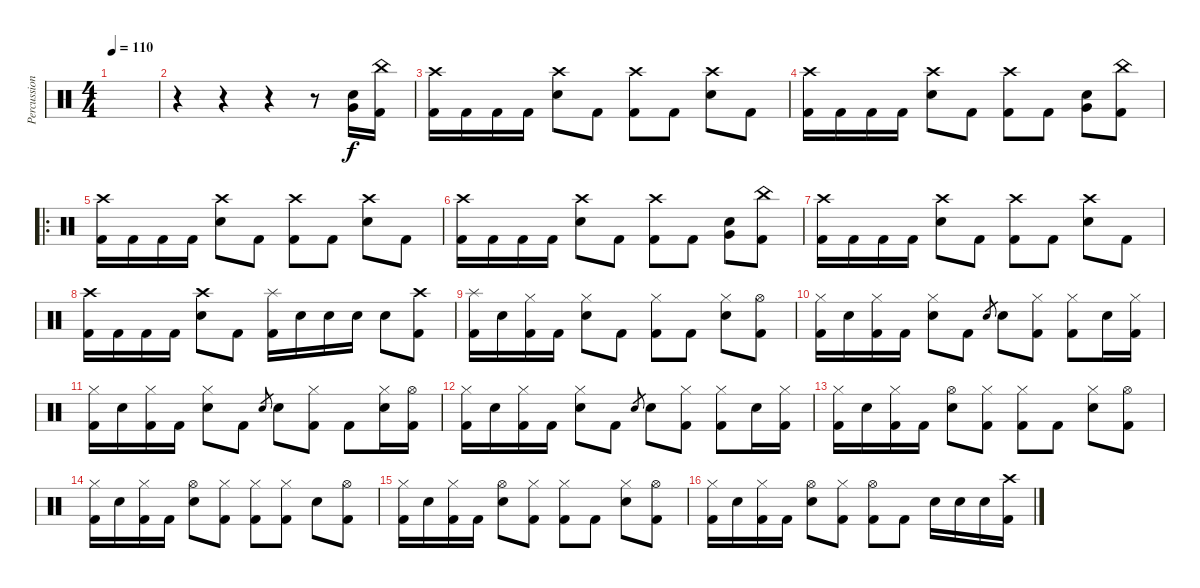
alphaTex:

\track ("Percussion" "Percussion") {instrument percussion}
\staff {score}
\articulation defaults
\ts (4 4)
\tempo 110
\clef neutral
\ks c
|
r.4 r.4 r.4 r.8 ("Snare (hit) 2" "Very Low Tom (hit)").16 ("China (hit)" "Kick (hit) 2").16 |
("Crash high (hit)" "Kick (hit) 2").16 "Kick (hit) 2".16 "Kick (hit) 2".16 "Kick (hit) 2".16 ("Crash high (hit)" "Snare (hit) 2").8 "Kick (hit) 2".8 ("Crash high (hit)" "Kick (hit) 2").8 "Kick (hit) 2".8 ("Crash high (hit)" "Snare (hit) 2").8 "Kick (hit) 2".8 |
("Crash high (hit)" "Kick (hit) 2").16 "Kick (hit) 2".16 "Kick (hit) 2".16 "Kick (hit) 2".16 ("Crash high (hit)" "Snare (hit) 2").8 "Kick (hit) 2".8 ("Crash high (hit)" "Kick (hit) 2").8 "Kick (hit) 2".8 ("Snare (hit) 2" "Very Low Tom (hit)").8 ("China (hit)" "Kick (hit) 2").8 |
\ro
("Crash high (hit)" "Kick (hit) 2").16 "Kick (hit) 2".16 "Kick (hit) 2".16 "Kick (hit) 2".16 ("Crash high (hit)" "Snare (hit) 2").8 "Kick (hit) 2".8 ("Crash high (hit)" "Kick (hit) 2").8 "Kick (hit) 2".8 ("Crash high (hit)" "Snare (hit) 2").8 "Kick (hit) 2".8 |
("Crash high (hit)" "Kick (hit) 2").16 "Kick (hit) 2".16 "Kick (hit) 2".16 "Kick (hit) 2".16 ("Crash high (hit)" "Snare (hit) 2").8 "Kick (hit) 2".8 ("Crash high (hit)" "Kick (hit) 2").8 "Kick (hit) 2".8 ("Snare (hit) 2" "Very Low Tom (hit)").8 ("China (hit)" "Kick (hit) 2").8 |
("Crash high (hit)" "Kick (hit) 2").16 "Kick (hit) 2".16 "Kick (hit) 2".16 "Kick (hit) 2".16 ("Crash high (hit)" "Snare (hit) 2").8 "Kick (hit) 2".8 ("Crash high (hit)" "Kick (hit) 2").8 "Kick (hit) 2".8 ("Crash high (hit)" "Snare (hit) 2").8 "Kick (hit) 2".8 |
("Crash high (hit)" "Kick (hit) 2").16 "Kick (hit) 2".16 "Kick (hit) 2".16 "Kick (hit) 2".16 ("Crash high (hit)" "Snare (hit) 2").8 "Kick (hit) 2".8 ("Splash (hit)" "Kick (hit) 2").16 "Snare (hit) 2".16 "Snare (hit) 2".16 "Snare (hit) 2".16 "Snare (hit) 2".8 ("Crash high (hit)" "Kick (hit) 2").8 |
("Splash (hit)" "Kick (hit) 2").16 "Snare (hit) 2".16 ("Hi-Hat (closed)" "Kick (hit) 2").16 "Kick (hit) 2".16 ("Snare (hit) 2" "Hi-Hat (closed)").8 "Kick (hit) 2".8 ("Hi-Hat (closed)" "Kick (hit) 2").8 "Kick (hit) 2".8 ("Snare (hit) 2" "Hi-Hat (closed)").8 ("Hi-Hat (open)" "Kick (hit) 2").8 |
("Hi-Hat (closed)" "Kick (hit) 2").16 "Snare (hit) 2".16 ("Hi-Hat (closed)" "Kick (hit) 2").16 "Kick (hit) 2".16 ("Snare (hit) 2" "Hi-Hat (closed)").8 "Kick (hit) 2".8 "Snare (hit) 2".8{gr} "Snare (hit) 2".8 ("Hi-Hat (closed)" "Kick (hit) 2").8 ("Hi-Hat (closed)" "Kick (hit) 2").8 "Snare (hit) 2".16 ("Hi-Hat (closed)" "Kick (hit) 2").16 |
("Hi-Hat (closed)" "Kick (hit) 2").16 "Snare (hit) 2".16 ("Hi-Hat (closed)" "Kick (hit) 2").16 "Kick (hit) 2".16 ("Snare (hit) 2" "Hi-Hat (closed)").8 "Kick (hit) 2".8 "Snare (hit) 2".8{gr} "Snare (hit) 2".8 ("Hi-Hat (closed)" "Kick (hit) 2").8 "Kick (hit) 2".8 ("Snare (hit) 2" "Hi-Hat (closed)").16 ("Hi-Hat (open)" "Kick (hit) 2").16 |
("Hi-Hat (closed)" "Kick (hit) 2").16 "Snare (hit) 2".16 ("Hi-Hat (closed)" "Kick (hit) 2").16 "Kick (hit) 2".16 ("Snare (hit) 2" "Hi-Hat (closed)").8 "Kick (hit) 2".8 "Snare (hit) 2".8{gr} "Snare (hit) 2".8 ("Hi-Hat (closed)" "Kick (hit) 2").8 ("Hi-Hat (closed)" "Kick (hit) 2").8 "Snare (hit) 2".16 ("Hi-Hat (closed)" "Kick (hit) 2").16 |
("Hi-Hat (closed)" "Kick (hit) 2").16 "Snare (hit) 2".16 ("Hi-Hat (closed)" "Kick (hit) 2").16 "Kick (hit) 2".16 ("Snare (hit) 2" "Hi-Hat (open)").8 ("Hi-Hat (closed)" "Kick (hit) 2").8 ("Hi-Hat (closed)" "Kick (hit) 2").8 "Kick (hit) 2".8 ("Snare (hit) 2" "Hi-Hat (closed)").8 ("Hi-Hat (open)" "Kick (hit) 2").8 |
("Hi-Hat (closed)" "Kick (hit) 2").16 "Snare (hit) 2".16 ("Hi-Hat (closed)" "Kick (hit) 2").16 "Kick (hit) 2".16 ("Snare (hit) 2" "Hi-Hat (open)").8 ("Hi-Hat (closed)" "Kick (hit) 2").8 ("Hi-Hat (closed)" "Kick (hit) 2").8 ("Hi-Hat (closed)" "Kick (hit) 2").8 "Snare (hit) 2".8 ("Hi-Hat (open)" "Kick (hit) 2").8 |
("Hi-Hat (closed)" "Kick (hit) 2").16 "Snare (hit) 2".16 ("Hi-Hat (closed)" "Kick (hit) 2").16 "Kick (hit) 2".16 ("Snare (hit) 2" "Hi-Hat (open)").8 ("Hi-Hat (closed)" "Kick (hit) 2").8 ("Hi-Hat (closed)" "Kick (hit) 2").8 "Kick (hit) 2".8 ("Snare (hit) 2" "Hi-Hat (closed)").8 ("Hi-Hat (open)" "Kick (hit) 2").8 |
("Hi-Hat (closed)" "Kick (hit) 2").16 "Snare (hit) 2".16 ("Hi-Hat (closed)" "Kick (hit) 2").16 "Kick (hit) 2".16 ("Snare (hit) 2" "Hi-Hat (open)").8 ("Hi-Hat (closed)" "Kick (hit) 2").8 ("Hi-Hat (open)" "Kick (hit) 2").8 "Kick (hit) 2".8 "Snare (hit) 2".16 "Snare (hit) 2".16 "Snare (hit) 2".16 ("Crash high (hit)" "Kick (hit) 2").16
